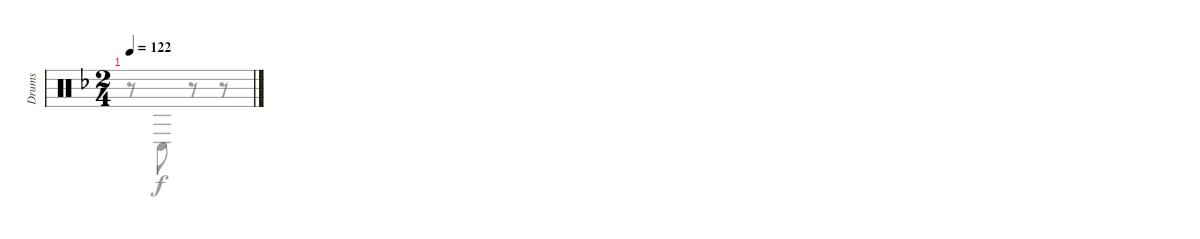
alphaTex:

\track ("Drums" "Drums") {instrument percussion}
\staff {score}
\articulation defaults
\voice
\ts (2 4)
\tempo 122
\clef neutral
\ks dminor
\voice
\clef neutral
\ks dminor
r.8{dy f} "Conga low (hit)".8 r.8 r.8
